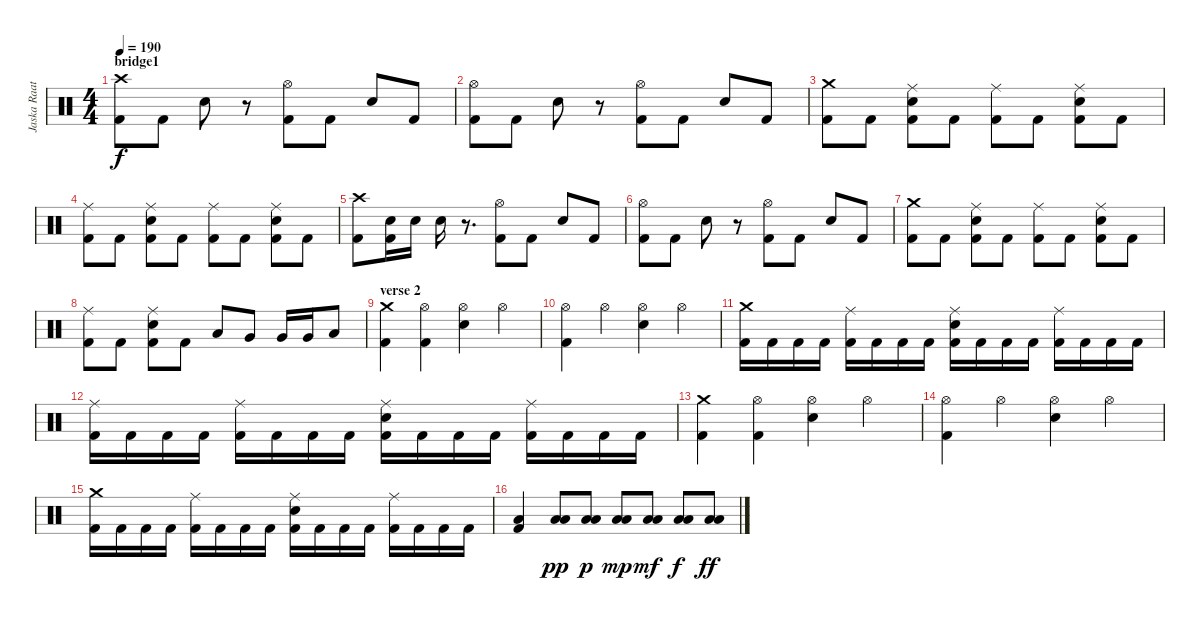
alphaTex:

\track ("Jaska Raatikainen" "Jaska Raat") {instrument percussion}
\staff {score}
\articulation defaults
\ts (4 4)
\section ("" "bridge1")
\tempo 190
\clef neutral
\ks c
("Crash high (hit)" "Kick (hit) 2").8{dy f} "Kick (hit) 2".8 "Snare (hit) 2".8 r.8 ("Hi-Hat (open)" "Kick (hit) 2").8 "Kick (hit) 2".8 "Snare (hit) 2".8 "Kick (hit) 2".8 |
("Hi-Hat (open)" "Kick (hit) 2").8 "Kick (hit) 2".8 "Snare (hit) 2".8 r.8 ("Hi-Hat (open)" "Kick (hit) 2").8 "Kick (hit) 2".8 "Snare (hit) 2".8 "Kick (hit) 2".8 |
("Crash medium (hit)" "Kick (hit) 2").8 "Kick (hit) 2".8 ("Ride (middle)" "Snare (hit) 2" "Kick (hit) 2").8 "Kick (hit) 2".8 ("Ride (middle)" "Kick (hit) 2").8 "Kick (hit) 2".8 ("Ride (middle)" "Snare (hit) 2" "Kick (hit) 2").8 "Kick (hit) 2".8 |
("Ride (middle)" "Kick (hit) 2").8 "Kick (hit) 2".8 ("Ride (middle)" "Snare (hit) 2" "Kick (hit) 2").8 "Kick (hit) 2".8 ("Ride (middle)" "Kick (hit) 2").8 "Kick (hit) 2".8 ("Ride (middle)" "Snare (hit) 2" "Kick (hit) 2").8 "Kick (hit) 2".8 |
("Crash high (hit)" "Kick (hit) 2").8 ("Snare (hit) 2" "Kick (hit) 2").16 "Snare (hit) 2".16 "Snare (hit) 2".16 r.8{d} ("Hi-Hat (open)" "Kick (hit) 2").8 "Kick (hit) 2".8 "Snare (hit) 2".8 "Kick (hit) 2".8 |
("Hi-Hat (open)" "Kick (hit) 2").8 "Kick (hit) 2".8 "Snare (hit) 2".8 r.8 ("Hi-Hat (open)" "Kick (hit) 2").8 "Kick (hit) 2".8 "Snare (hit) 2".8 "Kick (hit) 2".8 |
("Crash medium (hit)" "Kick (hit) 2").8 "Kick (hit) 2".8 ("Ride (middle)" "Snare (hit) 2" "Kick (hit) 2").8 "Kick (hit) 2".8 ("Ride (middle)" "Kick (hit) 2").8 "Kick (hit) 2".8 ("Ride (middle)" "Snare (hit) 2" "Kick (hit) 2").8 "Kick (hit) 2".8 |
("Ride (middle)" "Kick (hit) 2").8 "Kick (hit) 2".8 ("Ride (middle)" "Snare (hit) 2" "Kick (hit) 2").8 "Kick (hit) 2".8 "Low Tom (hit)".8 "Very Low Tom (hit)".8 "Very Low Tom (hit)".16 "Very Low Tom (hit)".16 "Low Floor Tom (hit)".8 |
\section ("" "verse 2")
("Crash medium (hit)" "Kick (hit) 2").4 ("Hi-Hat (open)" "Kick (hit) 2").4 ("Hi-Hat (open)" "Snare (hit) 2").4 "Hi-Hat (open)".4 |
("Hi-Hat (open)" "Kick (hit) 2").4 "Hi-Hat (open)".4 ("Hi-Hat (open)" "Snare (hit) 2").4 "Hi-Hat (open)".4 |
("Crash medium (hit)" "Kick (hit) 2").16 "Kick (hit) 2".16 "Kick (hit) 2".16 "Kick (hit) 2".16 ("Ride (middle)" "Kick (hit) 2").16 "Kick (hit) 2".16 "Kick (hit) 2".16 "Kick (hit) 2".16 ("Ride (middle)" "Snare (hit) 2" "Kick (hit) 2").16 "Kick (hit) 2".16 "Kick (hit) 2".16 "Kick (hit) 2".16 ("Ride (middle)" "Kick (hit) 2").16 "Kick (hit) 2".16 "Kick (hit) 2".16 "Kick (hit) 2".16 |
("Ride (middle)" "Kick (hit) 2").16 "Kick (hit) 2".16 "Kick (hit) 2".16 "Kick (hit) 2".16 ("Ride (middle)" "Kick (hit) 2").16 "Kick (hit) 2".16 "Kick (hit) 2".16 "Kick (hit) 2".16 ("Ride (middle)" "Snare (hit) 2" "Kick (hit) 2").16 "Kick (hit) 2".16 "Kick (hit) 2".16 "Kick (hit) 2".16 ("Ride (middle)" "Kick (hit) 2").16 "Kick (hit) 2".16 "Kick (hit) 2".16 "Kick (hit) 2".16 |
("Crash medium (hit)" "Kick (hit) 2").4 ("Hi-Hat (open)" "Kick (hit) 2").4 ("Hi-Hat (open)" "Snare (hit) 2").4 "Hi-Hat (open)".4 |
("Hi-Hat (open)" "Kick (hit) 2").4 "Hi-Hat (open)".4 ("Hi-Hat (open)" "Snare (hit) 2").4 "Hi-Hat (open)".4 |
("Crash medium (hit)" "Kick (hit) 2").16 "Kick (hit) 2".16 "Kick (hit) 2".16 "Kick (hit) 2".16 ("Ride (middle)" "Kick (hit) 2").16 "Kick (hit) 2".16 "Kick (hit) 2".16 "Kick (hit) 2".16 ("Ride (middle)" "Snare (hit) 2" "Kick (hit) 2").16 "Kick (hit) 2".16 "Kick (hit) 2".16 "Kick (hit) 2".16 ("Ride (middle)" "Kick (hit) 2").16 "Kick (hit) 2".16 "Kick (hit) 2".16 "Kick (hit) 2".16 |
("Low Tom (hit)" "Kick (hit) 2").4 ("Low Tom (hit)" "Low Floor Tom (hit)").8{dy pp} ("Low Tom (hit)" "Low Floor Tom (hit)").8{dy p} ("Low Tom (hit)" "Low Floor Tom (hit)").8{dy mp} ("Low Tom (hit)" "Low Floor Tom (hit)").8{dy mf} ("Low Tom (hit)" "Low Floor Tom (hit)").8{dy f} ("Low Tom (hit)" "Low Floor Tom (hit)").8{dy ff}
